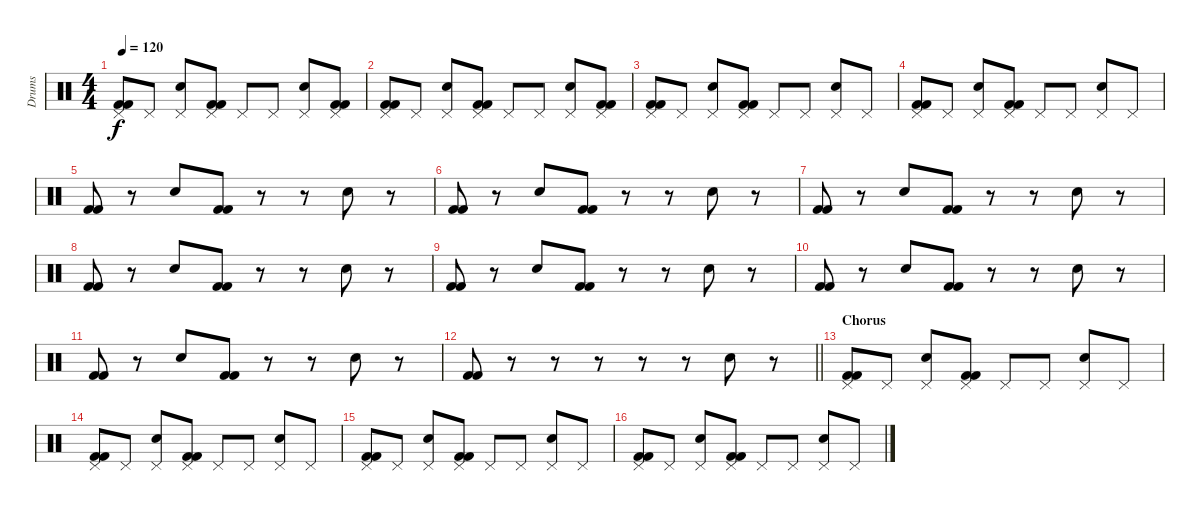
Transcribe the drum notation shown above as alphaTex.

\track ("Drums" "Drums") {instrument percussion}
\staff {score}
\articulation defaults
\ts (4 4)
\tempo 120
\clef neutral
\ks c
("Pedal Hi-Hat (hit)" "Kick (hit) 2" "Kick (hit) 2").8{dy f} "Pedal Hi-Hat (hit)".8 ("Electric Snare (hit)" "Pedal Hi-Hat (hit)").8 ("Pedal Hi-Hat (hit)" "Kick (hit) 2" "Kick (hit) 2").8 "Pedal Hi-Hat (hit)".8 "Pedal Hi-Hat (hit)".8 ("Electric Snare (hit)" "Pedal Hi-Hat (hit)").8 ("Pedal Hi-Hat (hit)" "Kick (hit) 2" "Kick (hit) 2").8 |
("Pedal Hi-Hat (hit)" "Kick (hit) 2" "Kick (hit) 2").8 "Pedal Hi-Hat (hit)".8 ("Electric Snare (hit)" "Pedal Hi-Hat (hit)").8 ("Pedal Hi-Hat (hit)" "Kick (hit) 2" "Kick (hit) 2").8 "Pedal Hi-Hat (hit)".8 "Pedal Hi-Hat (hit)".8 ("Electric Snare (hit)" "Pedal Hi-Hat (hit)").8 ("Pedal Hi-Hat (hit)" "Kick (hit) 2" "Kick (hit) 2").8 |
("Pedal Hi-Hat (hit)" "Kick (hit) 2" "Kick (hit) 2").8 "Pedal Hi-Hat (hit)".8 ("Electric Snare (hit)" "Pedal Hi-Hat (hit)").8 ("Pedal Hi-Hat (hit)" "Kick (hit) 2" "Kick (hit) 2").8 "Pedal Hi-Hat (hit)".8 "Pedal Hi-Hat (hit)".8 ("Electric Snare (hit)" "Pedal Hi-Hat (hit)").8 "Pedal Hi-Hat (hit)".8 |
("Pedal Hi-Hat (hit)" "Kick (hit) 2" "Kick (hit) 2").8 "Pedal Hi-Hat (hit)".8 ("Electric Snare (hit)" "Pedal Hi-Hat (hit)").8 ("Pedal Hi-Hat (hit)" "Kick (hit) 2" "Kick (hit) 2").8 "Pedal Hi-Hat (hit)".8 "Pedal Hi-Hat (hit)".8 ("Electric Snare (hit)" "Pedal Hi-Hat (hit)").8 "Pedal Hi-Hat (hit)".8 |
("Kick (hit) 2" "Kick (hit) 2").8 r.8 "Electric Snare (hit)".8 ("Kick (hit) 2" "Kick (hit) 2").8 r.8 r.8 "Electric Snare (hit)".8 r.8 |
("Kick (hit) 2" "Kick (hit) 2").8 r.8 "Electric Snare (hit)".8 ("Kick (hit) 2" "Kick (hit) 2").8 r.8 r.8 "Electric Snare (hit)".8 r.8 |
("Kick (hit) 2" "Kick (hit) 2").8 r.8 "Electric Snare (hit)".8 ("Kick (hit) 2" "Kick (hit) 2").8 r.8 r.8 "Electric Snare (hit)".8 r.8 |
("Kick (hit) 2" "Kick (hit) 2").8 r.8 "Electric Snare (hit)".8 ("Kick (hit) 2" "Kick (hit) 2").8 r.8 r.8 "Electric Snare (hit)".8 r.8 |
("Kick (hit) 2" "Kick (hit) 2").8 r.8 "Electric Snare (hit)".8 ("Kick (hit) 2" "Kick (hit) 2").8 r.8 r.8 "Electric Snare (hit)".8 r.8 |
("Kick (hit) 2" "Kick (hit) 2").8 r.8 "Electric Snare (hit)".8 ("Kick (hit) 2" "Kick (hit) 2").8 r.8 r.8 "Electric Snare (hit)".8 r.8 |
("Kick (hit) 2" "Kick (hit) 2").8 r.8 "Electric Snare (hit)".8 ("Kick (hit) 2" "Kick (hit) 2").8 r.8 r.8 "Electric Snare (hit)".8 r.8 |
\barLineRight lightlight
("Kick (hit) 2" "Kick (hit) 2").8 r.8 r.8 r.8 r.8 r.8 "Electric Snare (hit)".8 r.8 |
\section ("" "Chorus")
("Pedal Hi-Hat (hit)" "Kick (hit) 2" "Kick (hit) 2").8 "Pedal Hi-Hat (hit)".8 ("Electric Snare (hit)" "Pedal Hi-Hat (hit)").8 ("Pedal Hi-Hat (hit)" "Kick (hit) 2" "Kick (hit) 2").8 "Pedal Hi-Hat (hit)".8 "Pedal Hi-Hat (hit)".8 ("Electric Snare (hit)" "Pedal Hi-Hat (hit)").8 "Pedal Hi-Hat (hit)".8 |
("Pedal Hi-Hat (hit)" "Kick (hit) 2" "Kick (hit) 2").8 "Pedal Hi-Hat (hit)".8 ("Electric Snare (hit)" "Pedal Hi-Hat (hit)").8 ("Pedal Hi-Hat (hit)" "Kick (hit) 2" "Kick (hit) 2").8 "Pedal Hi-Hat (hit)".8 "Pedal Hi-Hat (hit)".8 ("Electric Snare (hit)" "Pedal Hi-Hat (hit)").8 "Pedal Hi-Hat (hit)".8 |
("Pedal Hi-Hat (hit)" "Kick (hit) 2" "Kick (hit) 2").8 "Pedal Hi-Hat (hit)".8 ("Electric Snare (hit)" "Pedal Hi-Hat (hit)").8 ("Pedal Hi-Hat (hit)" "Kick (hit) 2" "Kick (hit) 2").8 "Pedal Hi-Hat (hit)".8 "Pedal Hi-Hat (hit)".8 ("Electric Snare (hit)" "Pedal Hi-Hat (hit)").8 "Pedal Hi-Hat (hit)".8 |
("Pedal Hi-Hat (hit)" "Kick (hit) 2" "Kick (hit) 2").8 "Pedal Hi-Hat (hit)".8 ("Electric Snare (hit)" "Pedal Hi-Hat (hit)").8 ("Pedal Hi-Hat (hit)" "Kick (hit) 2" "Kick (hit) 2").8 "Pedal Hi-Hat (hit)".8 "Pedal Hi-Hat (hit)".8 ("Electric Snare (hit)" "Pedal Hi-Hat (hit)").8 "Pedal Hi-Hat (hit)".8
